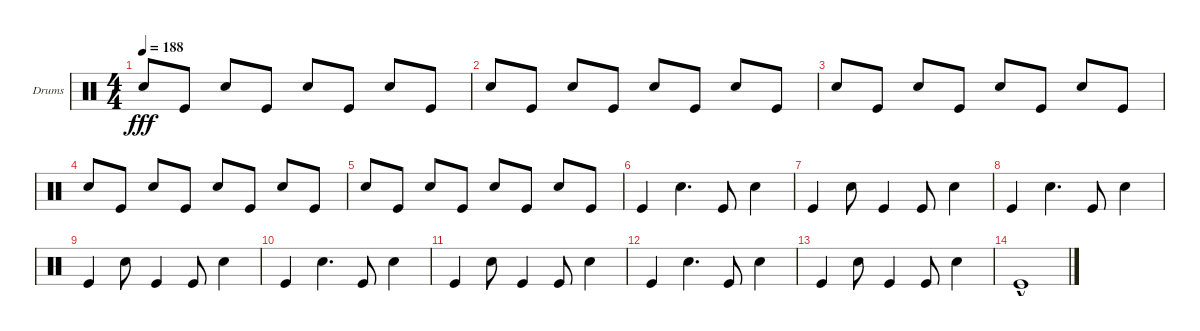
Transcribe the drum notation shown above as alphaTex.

\defaultSystemsLayout 4
\bracketExtendMode groupsimilarinstruments
\firstSystemTrackNameOrientation horizontal
\otherSystemsTrackNameOrientation horizontal
\track ("Пашок" "Drums") {instrument percussion}
\staff {score}
\articulation defaults
\ts (4 4)
\tempo 188
\clef neutral
\ks c "Snare (hit) 2".8{dy fff} "Kick (hit)".8 "Snare (hit) 2".8 "Kick (hit)".8 "Snare (hit) 2".8 "Kick (hit)".8 "Snare (hit) 2".8 "Kick (hit)".8
|
"Snare (hit) 2".8 "Kick (hit)".8 "Snare (hit) 2".8 "Kick (hit)".8 "Snare (hit) 2".8 "Kick (hit)".8 "Snare (hit) 2".8 "Kick (hit)".8 |
"Snare (hit) 2".8 "Kick (hit)".8 "Snare (hit) 2".8 "Kick (hit)".8 "Snare (hit) 2".8 "Kick (hit)".8 "Snare (hit) 2".8 "Kick (hit)".8 |
"Snare (hit) 2".8 "Kick (hit)".8 "Snare (hit) 2".8 "Kick (hit)".8 "Snare (hit) 2".8 "Kick (hit)".8 "Snare (hit) 2".8 "Kick (hit)".8 |
"Snare (hit) 2".8 "Kick (hit)".8 "Snare (hit) 2".8 "Kick (hit)".8 "Snare (hit) 2".8 "Kick (hit)".8 "Snare (hit) 2".8 "Kick (hit)".8 |
"Kick (hit)".4 "Snare (hit) 2".4{d} "Kick (hit)".8 "Snare (hit) 2".4 |
"Kick (hit)".4 "Snare (hit) 2".8 "Kick (hit)".4 "Kick (hit)".8 "Snare (hit) 2".4 |
"Kick (hit)".4 "Snare (hit) 2".4{d} "Kick (hit)".8 "Snare (hit) 2".4 |
"Kick (hit)".4 "Snare (hit) 2".8 "Kick (hit)".4 "Kick (hit)".8 "Snare (hit) 2".4 |
"Kick (hit)".4 "Snare (hit) 2".4{d} "Kick (hit)".8 "Snare (hit) 2".4 |
"Kick (hit)".4 "Snare (hit) 2".8 "Kick (hit)".4 "Kick (hit)".8 "Snare (hit) 2".4 |
"Kick (hit)".4 "Snare (hit) 2".4{d} "Kick (hit)".8 "Snare (hit) 2".4 |
"Kick (hit)".4 "Snare (hit) 2".8 "Kick (hit)".4 "Kick (hit)".8 "Snare (hit) 2".4 |
"Kick (hit)"{hac}.1
